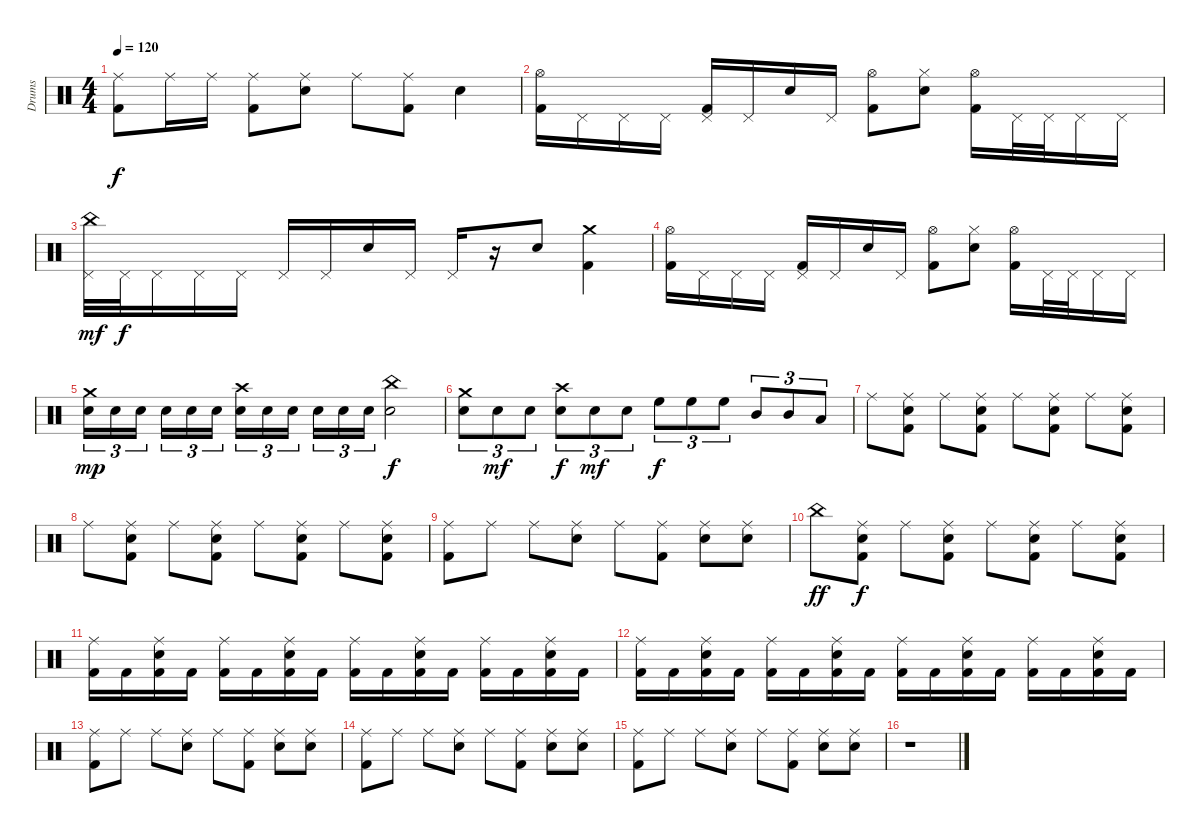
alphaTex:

\track ("Drums" "Drums") {instrument percussion}
\staff {score}
\articulation defaults
\ts (4 4)
\tempo 120
\clef neutral
\ks c
("Ride (middle)" "Kick (hit) 2").8{dy f} "Ride (middle)".16 "Ride (middle)".16 ("Ride (middle)" "Kick (hit) 2").8 ("Ride (middle)" "Electric Snare (hit)").8 "Ride (middle)".8 ("Ride (middle)" "Kick (hit) 2").8 "Electric Snare (hit)".4 |
("Hi-Hat (open)" "Kick (hit) 2").16 "Pedal Hi-Hat (hit)".16 "Pedal Hi-Hat (hit)".16 "Pedal Hi-Hat (hit)".16 ("Pedal Hi-Hat (hit)" "Kick (hit) 2").16 "Pedal Hi-Hat (hit)".16 "Electric Snare (hit)".16 "Pedal Hi-Hat (hit)".16 ("Hi-Hat (open)" "Kick (hit) 2").8 ("Hi-Hat (closed)" "Electric Snare (hit)").8 ("Hi-Hat (open)" "Kick (hit) 2").16 "Pedal Hi-Hat (hit)".32 "Pedal Hi-Hat (hit)".32 "Pedal Hi-Hat (hit)".16 "Pedal Hi-Hat (hit)".16 |
("China (hit)" "Pedal Hi-Hat (hit)").32{dy mf} "Pedal Hi-Hat (hit)".32{dy f} "Pedal Hi-Hat (hit)".16 "Pedal Hi-Hat (hit)".16 "Pedal Hi-Hat (hit)".16 "Pedal Hi-Hat (hit)".16 "Pedal Hi-Hat (hit)".16 "Electric Snare (hit)".16 "Pedal Hi-Hat (hit)".16 "Pedal Hi-Hat (hit)".16 r.16 "Electric Snare (hit)".8 ("Crash medium (hit)" "Kick (hit) 2").4 |
("Hi-Hat (open)" "Kick (hit) 2").16 "Pedal Hi-Hat (hit)".16 "Pedal Hi-Hat (hit)".16 "Pedal Hi-Hat (hit)".16 ("Pedal Hi-Hat (hit)" "Kick (hit) 2").16 "Pedal Hi-Hat (hit)".16 "Electric Snare (hit)".16 "Pedal Hi-Hat (hit)".16 ("Hi-Hat (open)" "Kick (hit) 2").8 ("Hi-Hat (closed)" "Electric Snare (hit)").8 ("Hi-Hat (open)" "Kick (hit) 2").16 "Pedal Hi-Hat (hit)".32 "Pedal Hi-Hat (hit)".32 "Pedal Hi-Hat (hit)".16 "Pedal Hi-Hat (hit)".16 |
("Crash medium (hit)" "Electric Snare (hit)").16{tu (3 2) dy mp} "Electric Snare (hit)".16{tu (3 2)} "Electric Snare (hit)".16{tu (3 2)} "Electric Snare (hit)".16{tu (3 2)} "Electric Snare (hit)".16{tu (3 2)} "Electric Snare (hit)".16{tu (3 2)} ("Crash high (hit)" "Electric Snare (hit)").16{tu (3 2)} "Electric Snare (hit)".16{tu (3 2)} "Electric Snare (hit)".16{tu (3 2)} "Electric Snare (hit)".16{tu (3 2)} "Electric Snare (hit)".16{tu (3 2)} "Electric Snare (hit)".16{tu (3 2)} ("China (hit)" "Electric Snare (hit)").2{dy f} |
("Crash medium (hit)" "Electric Snare (hit)").8{tu (3 2)} "Electric Snare (hit)".8{tu (3 2) dy mf} "Electric Snare (hit)".8{tu (3 2)} ("Crash high (hit)" "Electric Snare (hit)").8{tu (3 2) dy f} "Electric Snare (hit)".8{tu (3 2) dy mf} "Electric Snare (hit)".8{tu (3 2)} "High Floor Tom (hit)".8{tu (3 2) dy f} "High Floor Tom (hit)".8{tu (3 2)} "High Floor Tom (hit)".8{tu (3 2)} "Mid Tom (hit)".8{tu (3 2)} "Mid Tom (hit)".8{tu (3 2)} "Low Tom (hit)".8{tu (3 2)} |
"Ride (middle)".8 ("Ride (middle)" "Electric Snare (hit)" "Kick (hit) 2").8 "Ride (middle)".8 ("Ride (middle)" "Electric Snare (hit)" "Kick (hit) 2").8 "Ride (middle)".8 ("Ride (middle)" "Electric Snare (hit)" "Kick (hit) 2").8 "Ride (middle)".8 ("Ride (middle)" "Electric Snare (hit)" "Kick (hit) 2").8 |
"Ride (middle)".8 ("Ride (middle)" "Electric Snare (hit)" "Kick (hit) 2").8 "Ride (middle)".8 ("Ride (middle)" "Electric Snare (hit)" "Kick (hit) 2").8 "Ride (middle)".8 ("Ride (middle)" "Electric Snare (hit)" "Kick (hit) 2").8 "Ride (middle)".8 ("Ride (middle)" "Electric Snare (hit)" "Kick (hit) 2").8 |
("Ride (middle)" "Kick (hit) 2").8 "Ride (middle)".8 "Ride (middle)".8 ("Ride (middle)" "Electric Snare (hit)").8 "Ride (middle)".8 ("Ride (middle)" "Kick (hit) 2").8 ("Ride (middle)" "Electric Snare (hit)").8 ("Ride (middle)" "Electric Snare (hit)").8 |
"China (hit)".8{dy ff} ("Ride (middle)" "Electric Snare (hit)" "Kick (hit) 2").8{dy f} "Ride (middle)".8 ("Ride (middle)" "Electric Snare (hit)" "Kick (hit) 2").8 "Ride (middle)".8 ("Ride (middle)" "Electric Snare (hit)" "Kick (hit) 2").8 "Ride (middle)".8 ("Ride (middle)" "Electric Snare (hit)" "Kick (hit) 2").8 |
("Ride (middle)" "Kick (hit) 2").16 "Kick (hit) 2".16 ("Ride (middle)" "Electric Snare (hit)" "Kick (hit) 2").16 "Kick (hit) 2".16 ("Ride (middle)" "Kick (hit) 2").16 "Kick (hit) 2".16 ("Ride (middle)" "Electric Snare (hit)" "Kick (hit) 2").16 "Kick (hit) 2".16 ("Ride (middle)" "Kick (hit) 2").16 "Kick (hit) 2".16 ("Ride (middle)" "Electric Snare (hit)" "Kick (hit) 2").16 "Kick (hit) 2".16 ("Ride (middle)" "Kick (hit) 2").16 "Kick (hit) 2".16 ("Ride (middle)" "Electric Snare (hit)" "Kick (hit) 2").16 "Kick (hit) 2".16 |
("Ride (middle)" "Kick (hit) 2").16 "Kick (hit) 2".16 ("Ride (middle)" "Electric Snare (hit)" "Kick (hit) 2").16 "Kick (hit) 2".16 ("Ride (middle)" "Kick (hit) 2").16 "Kick (hit) 2".16 ("Ride (middle)" "Electric Snare (hit)" "Kick (hit) 2").16 "Kick (hit) 2".16 ("Ride (middle)" "Kick (hit) 2").16 "Kick (hit) 2".16 ("Ride (middle)" "Electric Snare (hit)" "Kick (hit) 2").16 "Kick (hit) 2".16 ("Ride (middle)" "Kick (hit) 2").16 "Kick (hit) 2".16 ("Ride (middle)" "Electric Snare (hit)" "Kick (hit) 2").16 "Kick (hit) 2".16 |
("Ride (middle)" "Kick (hit) 2").8{volume 0} "Ride (middle)".8 "Ride (middle)".8 ("Ride (middle)" "Electric Snare (hit)").8 "Ride (middle)".8 ("Ride (middle)" "Kick (hit) 2").8 ("Ride (middle)" "Electric Snare (hit)").8 ("Ride (middle)" "Electric Snare (hit)").8 |
("Ride (middle)" "Kick (hit) 2").8 "Ride (middle)".8 "Ride (middle)".8 ("Ride (middle)" "Electric Snare (hit)").8 "Ride (middle)".8 ("Ride (middle)" "Kick (hit) 2").8 ("Ride (middle)" "Electric Snare (hit)").8 ("Ride (middle)" "Electric Snare (hit)").8 |
("Ride (middle)" "Kick (hit) 2").8 "Ride (middle)".8 "Ride (middle)".8 ("Ride (middle)" "Electric Snare (hit)").8 "Ride (middle)".8 ("Ride (middle)" "Kick (hit) 2").8 ("Ride (middle)" "Electric Snare (hit)").8 ("Ride (middle)" "Electric Snare (hit)").8 |
r.1
